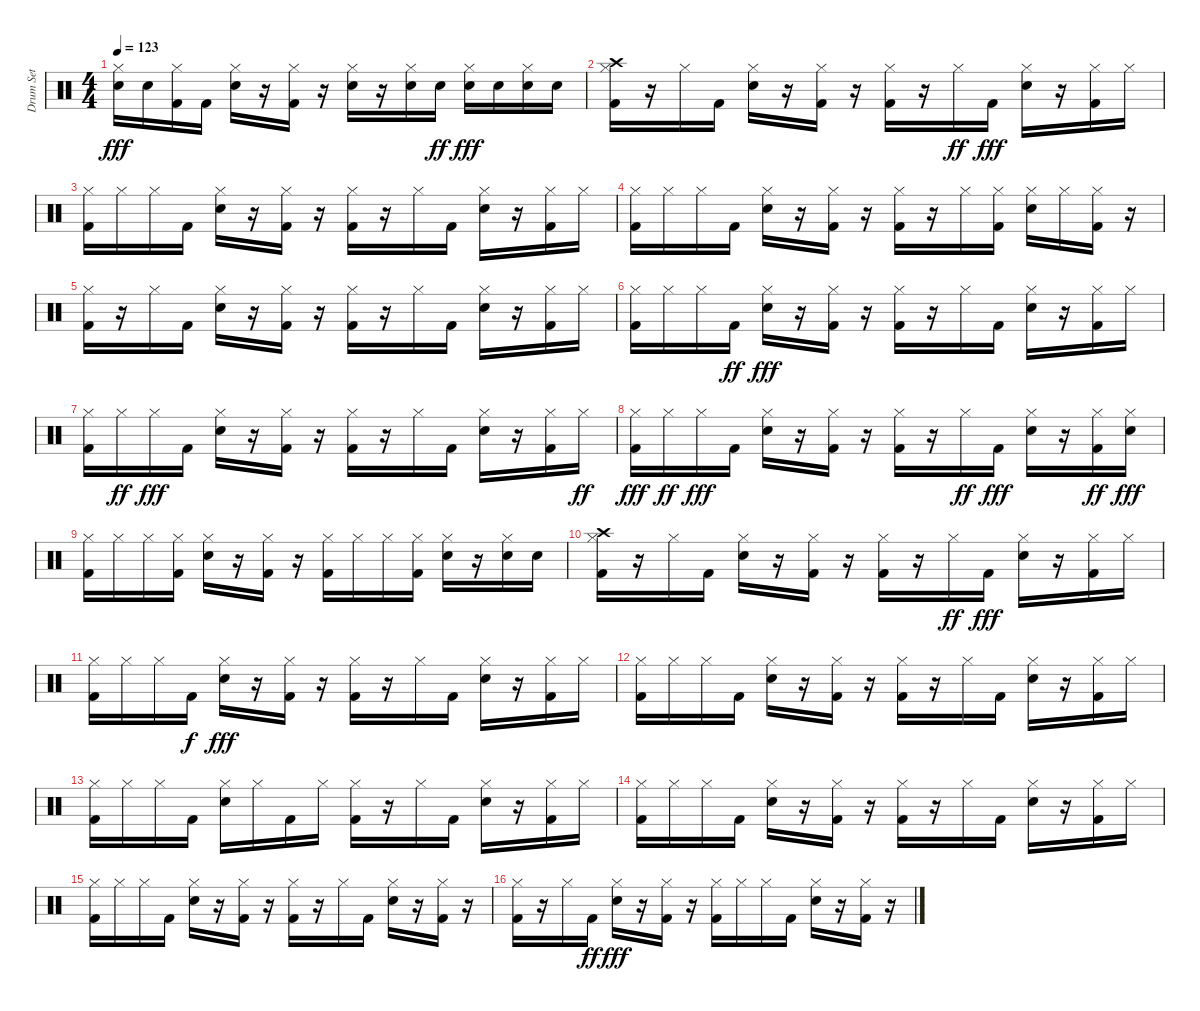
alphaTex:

\track ("Drum Set" "Drum Set") {instrument percussion}
\staff {score}
\articulation defaults
\ts (4 4)
\tempo 123
\clef neutral
\ks c
("Hi-Hat (closed)" "Snare (hit) 2").16{dy fff} "Snare (hit) 2".16 ("Kick (hit) 2" "Hi-Hat (closed)").16 "Kick (hit) 2".16 ("Snare (hit) 2" "Hi-Hat (closed)").16 r.16 ("Kick (hit) 2" "Hi-Hat (closed)").16 r.16 ("Snare (hit) 2" "Hi-Hat (closed)").16 r.16 ("Snare (hit) 2" "Hi-Hat (closed)").16 "Snare (hit) 2".16{dy ff} ("Snare (hit) 2" "Hi-Hat (closed)").16{dy fff} "Snare (hit) 2".16 ("Snare (hit) 2" "Hi-Hat (closed)").16 "Snare (hit) 2".16 |
("Crash high (hit)" "Kick (hit) 2" "Hi-Hat (closed)").16 r.16 "Hi-Hat (closed)".16 "Kick (hit) 2".16 ("Snare (hit) 2" "Hi-Hat (closed)").16 r.16 ("Kick (hit) 2" "Hi-Hat (closed)").16 r.16 ("Kick (hit) 2" "Hi-Hat (closed)").16 r.16 "Hi-Hat (closed)".16{dy ff} "Kick (hit) 2".16{dy fff} ("Snare (hit) 2" "Hi-Hat (closed)").16 r.16 ("Kick (hit) 2" "Hi-Hat (closed)").16 "Hi-Hat (closed)".16 |
("Kick (hit) 2" "Hi-Hat (closed)").16 "Hi-Hat (closed)".16 "Hi-Hat (closed)".16 "Kick (hit) 2".16 ("Snare (hit) 2" "Hi-Hat (closed)").16 r.16 ("Kick (hit) 2" "Hi-Hat (closed)").16 r.16 ("Kick (hit) 2" "Hi-Hat (closed)").16 r.16 "Hi-Hat (closed)".16 "Kick (hit) 2".16 ("Snare (hit) 2" "Hi-Hat (closed)").16 r.16 ("Kick (hit) 2" "Hi-Hat (closed)").16 "Hi-Hat (closed)".16 |
("Kick (hit) 2" "Hi-Hat (closed)").16 "Hi-Hat (closed)".16 "Hi-Hat (closed)".16 "Kick (hit) 2".16 ("Snare (hit) 2" "Hi-Hat (closed)").16 r.16 ("Kick (hit) 2" "Hi-Hat (closed)").16 r.16 ("Kick (hit) 2" "Hi-Hat (closed)").16 r.16 "Hi-Hat (closed)".16 ("Hi-Hat (closed)" "Kick (hit) 2").16 ("Snare (hit) 2" "Hi-Hat (closed)").16 "Hi-Hat (closed)".16 ("Hi-Hat (closed)" "Kick (hit) 2").16 r.16 |
("Hi-Hat (closed)" "Kick (hit) 2").16 r.16 "Hi-Hat (closed)".16 "Kick (hit) 2".16 ("Hi-Hat (closed)" "Snare (hit) 2").16 r.16 ("Kick (hit) 2" "Hi-Hat (closed)").16 r.16 ("Kick (hit) 2" "Hi-Hat (closed)").16 r.16 "Hi-Hat (closed)".16 "Kick (hit) 2".16 ("Hi-Hat (closed)" "Snare (hit) 2").16 r.16 ("Hi-Hat (closed)" "Kick (hit) 2").16 "Hi-Hat (closed)".16 |
("Hi-Hat (closed)" "Kick (hit) 2").16 "Hi-Hat (closed)".16 "Hi-Hat (closed)".16 "Kick (hit) 2".16{dy ff} ("Snare (hit) 2" "Hi-Hat (closed)").16{dy fff} r.16 ("Kick (hit) 2" "Hi-Hat (closed)").16 r.16 ("Kick (hit) 2" "Hi-Hat (closed)").16 r.16 "Hi-Hat (closed)".16 "Kick (hit) 2".16 ("Snare (hit) 2" "Hi-Hat (closed)").16 r.16 ("Kick (hit) 2" "Hi-Hat (closed)").16 "Hi-Hat (closed)".16 |
("Kick (hit) 2" "Hi-Hat (closed)").16 "Hi-Hat (closed)".16{dy ff} "Hi-Hat (closed)".16{dy fff} "Kick (hit) 2".16 ("Snare (hit) 2" "Hi-Hat (closed)").16 r.16 ("Kick (hit) 2" "Hi-Hat (closed)").16 r.16 ("Kick (hit) 2" "Hi-Hat (closed)").16 r.16 "Hi-Hat (closed)".16 "Kick (hit) 2".16 ("Snare (hit) 2" "Hi-Hat (closed)").16 r.16 ("Kick (hit) 2" "Hi-Hat (closed)").16 "Hi-Hat (closed)".16{dy ff} |
("Hi-Hat (closed)" "Kick (hit) 2").16{dy fff} "Hi-Hat (closed)".16{dy ff} "Hi-Hat (closed)".16{dy fff} "Kick (hit) 2".16 ("Snare (hit) 2" "Hi-Hat (closed)").16 r.16 ("Kick (hit) 2" "Hi-Hat (closed)").16 r.16 ("Kick (hit) 2" "Hi-Hat (closed)").16 r.16 "Hi-Hat (closed)".16{dy ff} "Kick (hit) 2".16{dy fff} ("Snare (hit) 2" "Hi-Hat (closed)").16 r.16 ("Hi-Hat (closed)" "Kick (hit) 2").16{dy ff} ("Hi-Hat (closed)" "Snare (hit) 2").16{dy fff} |
("Hi-Hat (closed)" "Kick (hit) 2").16 "Hi-Hat (closed)".16 "Hi-Hat (closed)".16 ("Hi-Hat (closed)" "Kick (hit) 2").16 ("Hi-Hat (closed)" "Snare (hit) 2").16 r.16 ("Hi-Hat (closed)" "Kick (hit) 2").16 r.16 ("Hi-Hat (closed)" "Kick (hit) 2").16 "Hi-Hat (closed)".16 "Hi-Hat (closed)".16 ("Hi-Hat (closed)" "Kick (hit) 2").16 ("Snare (hit) 2" "Hi-Hat (closed)").16 r.16 ("Hi-Hat (closed)" "Snare (hit) 2").16 "Snare (hit) 2".16 |
("Hi-Hat (closed)" "Crash high (hit)" "Kick (hit) 2").16 r.16 "Hi-Hat (closed)".16 "Kick (hit) 2".16 ("Snare (hit) 2" "Hi-Hat (closed)").16 r.16 ("Kick (hit) 2" "Hi-Hat (closed)").16 r.16 ("Kick (hit) 2" "Hi-Hat (closed)").16 r.16 "Hi-Hat (closed)".16{dy ff} "Kick (hit) 2".16{dy fff} ("Snare (hit) 2" "Hi-Hat (closed)").16 r.16 ("Kick (hit) 2" "Hi-Hat (closed)").16 "Hi-Hat (closed)".16 |
("Hi-Hat (closed)" "Kick (hit) 2").16 "Hi-Hat (closed)".16 "Hi-Hat (closed)".16 "Kick (hit) 2".16{dy f} ("Snare (hit) 2" "Hi-Hat (closed)").16{dy fff} r.16 ("Kick (hit) 2" "Hi-Hat (closed)").16 r.16 ("Kick (hit) 2" "Hi-Hat (closed)").16 r.16 "Hi-Hat (closed)".16 "Kick (hit) 2".16 ("Snare (hit) 2" "Hi-Hat (closed)").16 r.16 ("Kick (hit) 2" "Hi-Hat (closed)").16 "Hi-Hat (closed)".16 |
("Kick (hit) 2" "Hi-Hat (closed)").16 "Hi-Hat (closed)".16 "Hi-Hat (closed)".16 "Kick (hit) 2".16 ("Snare (hit) 2" "Hi-Hat (closed)").16 r.16 ("Kick (hit) 2" "Hi-Hat (closed)").16 r.16 ("Kick (hit) 2" "Hi-Hat (closed)").16 r.16 "Hi-Hat (closed)".16 "Kick (hit) 2".16 ("Snare (hit) 2" "Hi-Hat (closed)").16 r.16 ("Kick (hit) 2" "Hi-Hat (closed)").16 "Hi-Hat (closed)".16 |
("Kick (hit) 2" "Hi-Hat (closed)").16 "Hi-Hat (closed)".16 "Hi-Hat (closed)".16 "Kick (hit) 2".16 ("Snare (hit) 2" "Hi-Hat (closed)").16 "Hi-Hat (closed)".16 "Kick (hit) 2".16 "Hi-Hat (closed)".16 ("Hi-Hat (closed)" "Kick (hit) 2").16 r.16 "Hi-Hat (closed)".16 "Kick (hit) 2".16 ("Snare (hit) 2" "Hi-Hat (closed)").16 r.16 ("Kick (hit) 2" "Hi-Hat (closed)").16 "Hi-Hat (closed)".16 |
("Hi-Hat (closed)" "Kick (hit) 2").16 "Hi-Hat (closed)".16 "Hi-Hat (closed)".16 "Kick (hit) 2".16 ("Hi-Hat (closed)" "Snare (hit) 2").16 r.16 ("Kick (hit) 2" "Hi-Hat (closed)").16 r.16 ("Kick (hit) 2" "Hi-Hat (closed)").16 r.16 "Hi-Hat (closed)".16 "Kick (hit) 2".16 ("Snare (hit) 2" "Hi-Hat (closed)").16 r.16 ("Kick (hit) 2" "Hi-Hat (closed)").16 "Hi-Hat (closed)".16 |
("Hi-Hat (closed)" "Kick (hit) 2").16 "Hi-Hat (closed)".16 "Hi-Hat (closed)".16 "Kick (hit) 2".16 ("Snare (hit) 2" "Hi-Hat (closed)").16 r.16 ("Kick (hit) 2" "Hi-Hat (closed)").16 r.16 ("Kick (hit) 2" "Hi-Hat (closed)").16 r.16 "Hi-Hat (closed)".16 "Kick (hit) 2".16 ("Snare (hit) 2" "Hi-Hat (closed)").16 r.16 ("Hi-Hat (closed)" "Kick (hit) 2").16 r.16 |
("Kick (hit) 2" "Hi-Hat (closed)").16 r.16 "Hi-Hat (closed)".16 "Kick (hit) 2".16{dy ff} ("Snare (hit) 2" "Hi-Hat (closed)").16{dy fff} r.16 ("Hi-Hat (closed)" "Kick (hit) 2").16 r.16 ("Hi-Hat (closed)" "Kick (hit) 2").16 "Hi-Hat (closed)".16 "Hi-Hat (closed)".16 "Kick (hit) 2".16 ("Snare (hit) 2" "Hi-Hat (closed)").16 r.16 ("Kick (hit) 2" "Hi-Hat (closed)").16 r.16
